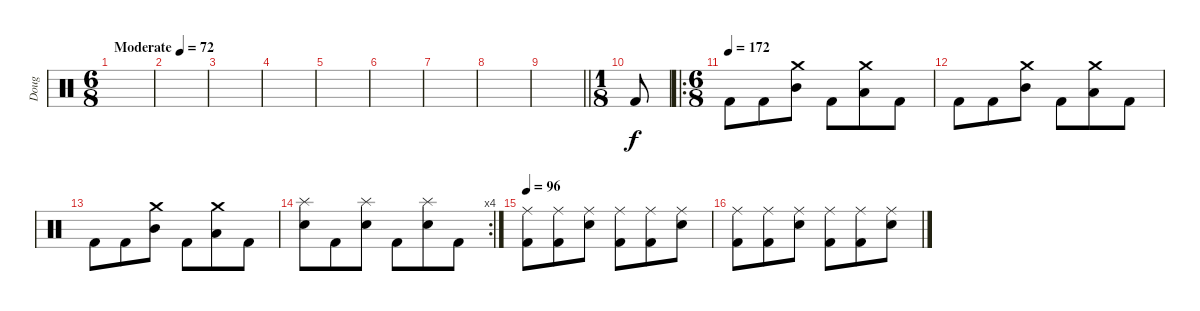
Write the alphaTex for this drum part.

\track ("Doug" "Doug") {instrument percussion}
\staff {score}
\articulation defaults
\ts (6 8)
\tempo (72 "Moderate")
\clef neutral
\ks c
|
|
|
|
|
|
|
|
\barLineRight lightlight
|
\ts (1 8)
"Kick (hit) 2".8 |
\ro
\ts (6 8)
\tempo (172)
"Kick (hit) 2".8 "Kick (hit) 2".8 ("Mid Tom (hit)" "Crash medium (hit)").8 "Kick (hit) 2".8 ("Low Tom (hit)" "Crash medium (hit)").8 "Kick (hit) 2".8 |
"Kick (hit) 2".8 "Kick (hit) 2".8 ("Mid Tom (hit)" "Crash medium (hit)").8 "Kick (hit) 2".8 ("Low Tom (hit)" "Crash medium (hit)").8 "Kick (hit) 2".8 |
"Kick (hit) 2".8 "Kick (hit) 2".8 ("Mid Tom (hit)" "Crash medium (hit)").8 "Kick (hit) 2".8 ("Low Tom (hit)" "Crash medium (hit)").8 "Kick (hit) 2".8 |
\rc 4
("Electric Snare (hit)" "Splash (hit)").8 "Kick (hit) 2".8 ("Electric Snare (hit)" "Splash (hit)").8 "Kick (hit) 2".8 ("Electric Snare (hit)" "Splash (hit)").8 "Kick (hit) 2".8 |
\tempo 96
("Kick (hit) 2" "Ride (middle)").8 ("Kick (hit) 2" "Ride (middle)").8 ("Electric Snare (hit)" "Ride (middle)").8 ("Kick (hit) 2" "Ride (middle)").8 ("Kick (hit) 2" "Ride (middle)").8 ("Electric Snare (hit)" "Ride (middle)").8 |
("Kick (hit) 2" "Ride (middle)").8 ("Kick (hit) 2" "Ride (middle)").8 ("Electric Snare (hit)" "Ride (middle)").8 ("Kick (hit) 2" "Ride (middle)").8 ("Kick (hit) 2" "Ride (middle)").8 ("Electric Snare (hit)" "Ride (middle)").8
